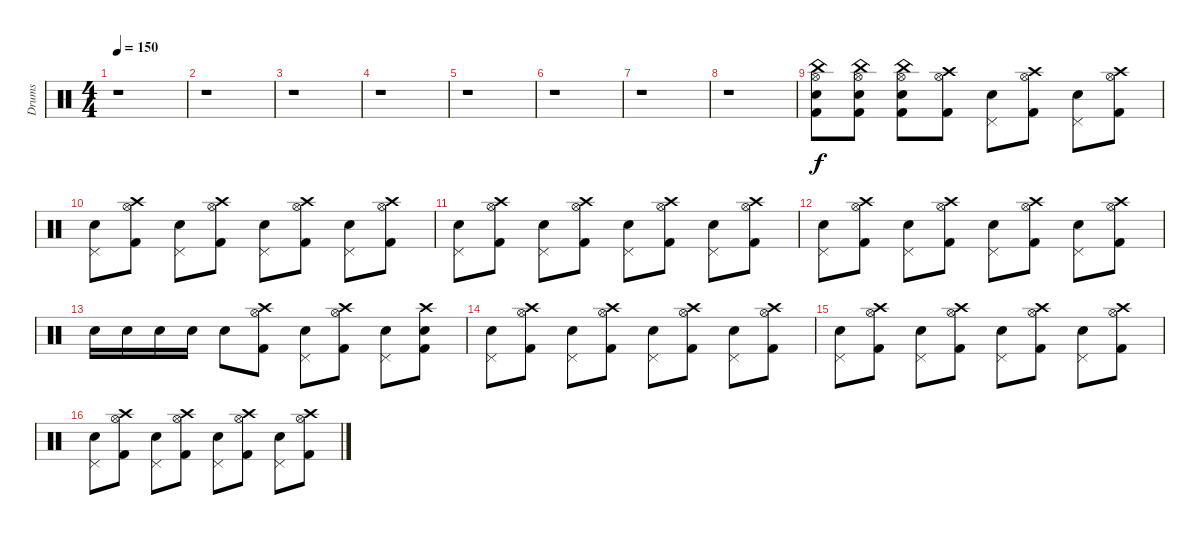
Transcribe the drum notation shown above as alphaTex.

\track ("Drums" "Drums") {instrument percussion}
\staff {score}
\articulation defaults
\ts (4 4)
\tempo 150
\clef neutral
\ks c
r.1{dy f} |
r.1 |
r.1 |
r.1 |
r.1 |
r.1 |
r.1 |
r.1 |
("Snare (hit) 2" "Kick (hit) 2" "Hi-Hat (open)" "China (hit)").8 ("Snare (hit) 2" "Kick (hit) 2" "Hi-Hat (open)" "China (hit)").8 ("Snare (hit) 2" "Kick (hit) 2" "Hi-Hat (open)" "China (hit)").8 ("Crash high (hit)" "Hi-Hat (open)" "Kick (hit) 2").8 ("Pedal Hi-Hat (hit)" "Snare (hit) 2").8 ("Crash high (hit)" "Hi-Hat (open)" "Kick (hit) 2").8 ("Pedal Hi-Hat (hit)" "Snare (hit) 2").8 ("Crash high (hit)" "Hi-Hat (open)" "Kick (hit) 2").8 |
("Pedal Hi-Hat (hit)" "Snare (hit) 2").8 ("Crash high (hit)" "Hi-Hat (open)" "Kick (hit) 2").8 ("Pedal Hi-Hat (hit)" "Snare (hit) 2").8 ("Crash high (hit)" "Hi-Hat (open)" "Kick (hit) 2").8 ("Pedal Hi-Hat (hit)" "Snare (hit) 2").8 ("Crash high (hit)" "Hi-Hat (open)" "Kick (hit) 2").8 ("Pedal Hi-Hat (hit)" "Snare (hit) 2").8 ("Crash high (hit)" "Hi-Hat (open)" "Kick (hit) 2").8 |
("Pedal Hi-Hat (hit)" "Snare (hit) 2").8 ("Crash high (hit)" "Hi-Hat (open)" "Kick (hit) 2").8 ("Pedal Hi-Hat (hit)" "Snare (hit) 2").8 ("Crash high (hit)" "Hi-Hat (open)" "Kick (hit) 2").8 ("Pedal Hi-Hat (hit)" "Snare (hit) 2").8 ("Crash high (hit)" "Hi-Hat (open)" "Kick (hit) 2").8 ("Pedal Hi-Hat (hit)" "Snare (hit) 2").8 ("Crash high (hit)" "Hi-Hat (open)" "Kick (hit) 2").8 |
("Pedal Hi-Hat (hit)" "Snare (hit) 2").8 ("Crash high (hit)" "Hi-Hat (open)" "Kick (hit) 2").8 ("Pedal Hi-Hat (hit)" "Snare (hit) 2").8 ("Crash high (hit)" "Hi-Hat (open)" "Kick (hit) 2").8 ("Pedal Hi-Hat (hit)" "Snare (hit) 2").8 ("Crash high (hit)" "Hi-Hat (open)" "Kick (hit) 2").8 ("Pedal Hi-Hat (hit)" "Snare (hit) 2").8 ("Crash high (hit)" "Hi-Hat (open)" "Kick (hit) 2").8 |
"Snare (hit) 2".16 "Snare (hit) 2".16 "Snare (hit) 2".16 "Snare (hit) 2".16 "Snare (hit) 2".8 ("Crash high (hit)" "Hi-Hat (open)" "Kick (hit) 2").8 ("Pedal Hi-Hat (hit)" "Snare (hit) 2").8 ("Crash high (hit)" "Hi-Hat (open)" "Kick (hit) 2").8 ("Pedal Hi-Hat (hit)" "Snare (hit) 2").8 ("Crash high (hit)" "Snare (hit) 2" "Kick (hit) 2").8 |
("Pedal Hi-Hat (hit)" "Snare (hit) 2").8 ("Crash high (hit)" "Hi-Hat (open)" "Kick (hit) 2").8 ("Pedal Hi-Hat (hit)" "Snare (hit) 2").8 ("Crash high (hit)" "Hi-Hat (open)" "Kick (hit) 2").8 ("Pedal Hi-Hat (hit)" "Snare (hit) 2").8 ("Crash high (hit)" "Hi-Hat (open)" "Kick (hit) 2").8 ("Pedal Hi-Hat (hit)" "Snare (hit) 2").8 ("Crash high (hit)" "Hi-Hat (open)" "Kick (hit) 2").8 |
("Pedal Hi-Hat (hit)" "Snare (hit) 2").8 ("Crash high (hit)" "Hi-Hat (open)" "Kick (hit) 2").8 ("Pedal Hi-Hat (hit)" "Snare (hit) 2").8 ("Crash high (hit)" "Hi-Hat (open)" "Kick (hit) 2").8 ("Pedal Hi-Hat (hit)" "Snare (hit) 2").8 ("Crash high (hit)" "Hi-Hat (open)" "Kick (hit) 2").8 ("Pedal Hi-Hat (hit)" "Snare (hit) 2").8 ("Crash high (hit)" "Hi-Hat (open)" "Kick (hit) 2").8 |
("Pedal Hi-Hat (hit)" "Snare (hit) 2").8 ("Crash high (hit)" "Hi-Hat (open)" "Kick (hit) 2").8 ("Pedal Hi-Hat (hit)" "Snare (hit) 2").8 ("Crash high (hit)" "Hi-Hat (open)" "Kick (hit) 2").8 ("Pedal Hi-Hat (hit)" "Snare (hit) 2").8 ("Crash high (hit)" "Hi-Hat (open)" "Kick (hit) 2").8 ("Pedal Hi-Hat (hit)" "Snare (hit) 2").8 ("Crash high (hit)" "Hi-Hat (open)" "Kick (hit) 2").8
